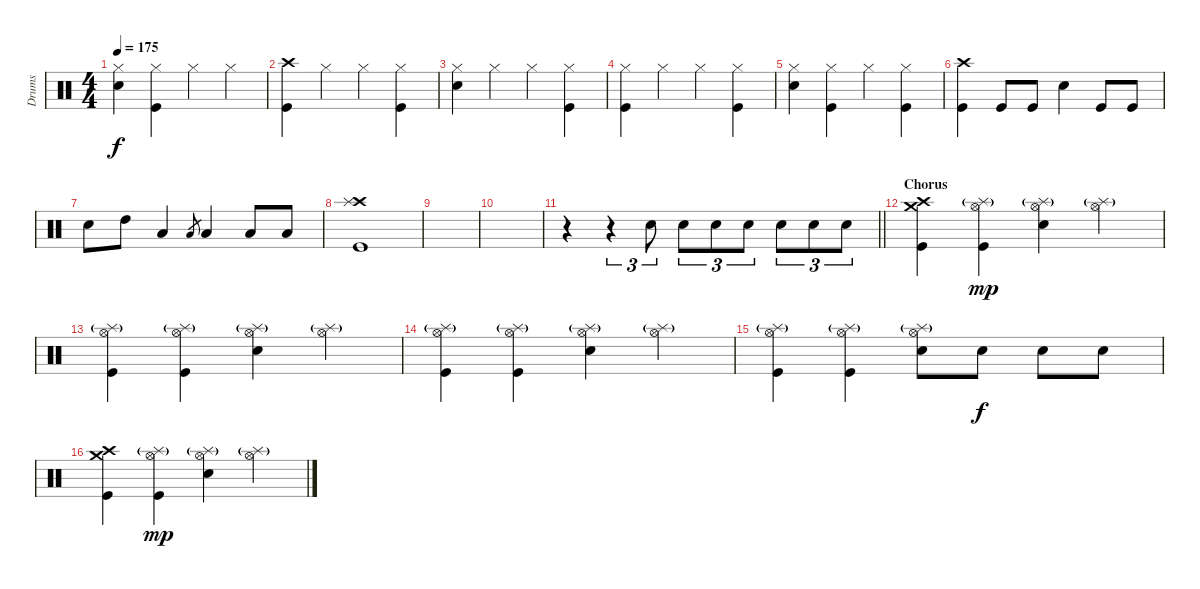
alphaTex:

\track ("Drums" "Drums") {instrument percussion}
\staff {score}
\articulation defaults
\ts (4 4)
\tempo 175
\clef neutral
\ks c
("Hi-Hat (closed)" "Electric Snare (hit)").4{dy f} ("Hi-Hat (closed)" "Kick (hit)").4 "Hi-Hat (closed)".4 "Hi-Hat (closed)".4 |
("Crash high (hit)" "Kick (hit)").4 "Hi-Hat (closed)".4 "Hi-Hat (closed)".4 ("Hi-Hat (closed)" "Kick (hit)").4 |
("Hi-Hat (closed)" "Electric Snare (hit)").4 "Hi-Hat (closed)".4 "Hi-Hat (closed)".4 ("Hi-Hat (closed)" "Kick (hit)").4 |
("Hi-Hat (closed)" "Kick (hit)").4 "Hi-Hat (closed)".4 "Hi-Hat (closed)".4 ("Hi-Hat (closed)" "Kick (hit)").4 |
("Hi-Hat (closed)" "Electric Snare (hit)").4 ("Hi-Hat (closed)" "Kick (hit)").4 "Hi-Hat (closed)".4 ("Hi-Hat (closed)" "Kick (hit)").4 |
("Crash high (hit)" "Kick (hit)").4 "Kick (hit)".8 "Kick (hit)".8 "Electric Snare (hit)".4 "Kick (hit)".8 "Kick (hit)".8 |
"Electric Snare (hit)".8 "High Tom (hit)".8 "Low Tom (hit)".4 "Low Tom (hit)".8{gr} "Low Tom (hit)".4 "Low Tom (hit)".8 "Low Floor Tom (hit)".8 |
("Crash high (hit)" "Splash (hit)" "Kick (hit)").1 |
|
|
\barLineRight lightlight
r.4{volume 4} r.4{tu (3 2)} "Electric Snare (hit)".8{tu (3 2) volume 14} "Electric Snare (hit)".8{tu (3 2)} "Electric Snare (hit)".8{tu (3 2)} "Electric Snare (hit)".8{tu (3 2)} "Electric Snare (hit)".8{tu (3 2)} "Electric Snare (hit)".8{tu (3 2)} "Electric Snare (hit)".8{tu (3 2)} |
\section ("" "Chorus")
("Crash medium (hit)" "Crash high (hit)" "Kick (hit)").4 ("Splash (hit)"{g} "Hi-Hat (open)" "Kick (hit)").4{dy mp} ("Splash (hit)"{g} "Hi-Hat (open)" "Electric Snare (hit)").4 ("Splash (hit)"{g} "Hi-Hat (open)").4 |
("Splash (hit)"{g} "Hi-Hat (open)" "Kick (hit)").4 ("Splash (hit)"{g} "Hi-Hat (open)" "Kick (hit)").4 ("Splash (hit)"{g} "Hi-Hat (open)" "Electric Snare (hit)").4 ("Splash (hit)"{g} "Hi-Hat (open)").4 |
("Splash (hit)"{g} "Hi-Hat (open)" "Kick (hit)").4 ("Splash (hit)"{g} "Hi-Hat (open)" "Kick (hit)").4 ("Splash (hit)"{g} "Hi-Hat (open)" "Electric Snare (hit)").4 ("Splash (hit)"{g} "Hi-Hat (open)").4 |
("Splash (hit)"{g} "Hi-Hat (open)" "Kick (hit)").4 ("Splash (hit)"{g} "Hi-Hat (open)" "Kick (hit)").4 ("Splash (hit)"{g} "Hi-Hat (open)" "Electric Snare (hit)").8 "Electric Snare (hit)".8{dy f} "Electric Snare (hit)".8 "Electric Snare (hit)".8 |
("Crash medium (hit)" "Crash high (hit)" "Kick (hit)").4 ("Splash (hit)"{g} "Hi-Hat (open)" "Kick (hit)").4{dy mp} ("Splash (hit)"{g} "Hi-Hat (open)" "Electric Snare (hit)").4 ("Splash (hit)"{g} "Hi-Hat (open)").4
